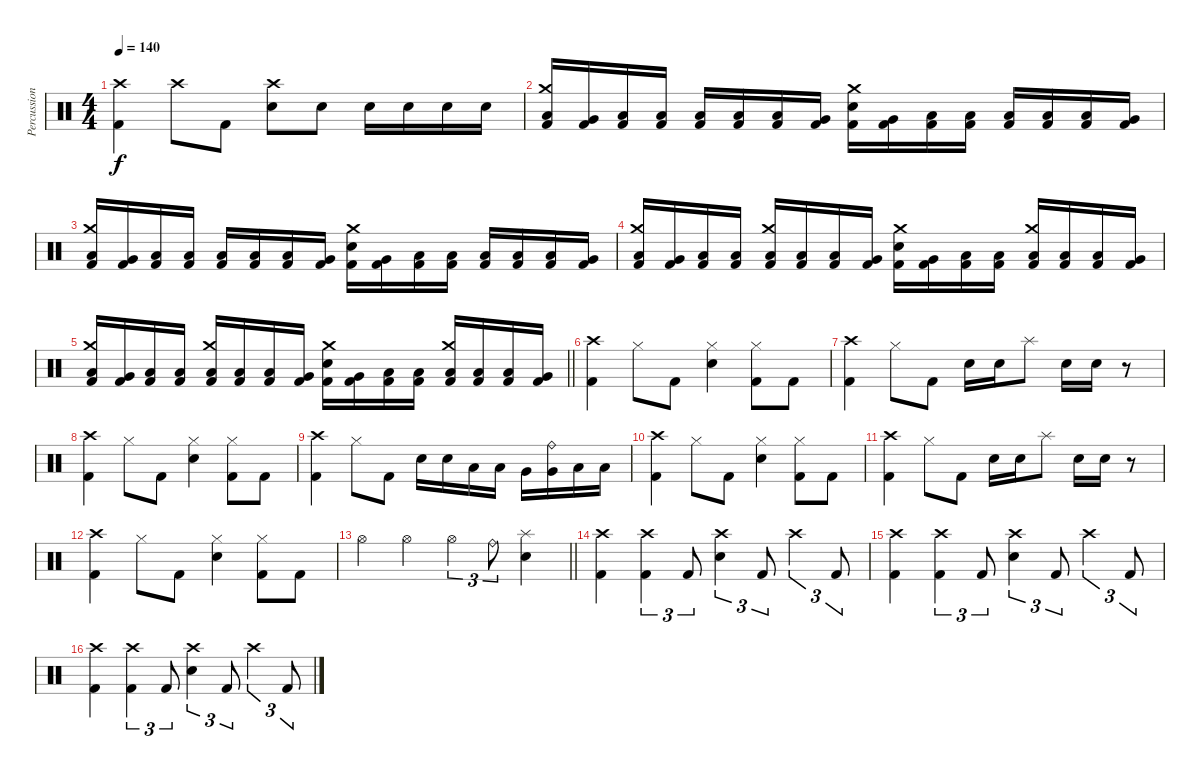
\track ("Percussion" "Percussion") {instrument percussion}
\staff {score}
\articulation defaults
\ts (4 4)
\tempo 140
\clef neutral
\ks c
("Crash high (hit)" "Kick (hit) 2").4{dy f} "Crash high (hit)".8 "Kick (hit) 2".8 ("Crash high (hit)" "Electric Snare (hit)").8 "Electric Snare (hit)".8 "Electric Snare (hit)".16 "Electric Snare (hit)".16 "Electric Snare (hit)".16 "Electric Snare (hit)".16 |
("Crash medium (hit)" "Low Tom (hit)" "Kick (hit) 2").16 ("Very Low Tom (hit)" "Kick (hit) 2").16 ("Low Floor Tom (hit)" "Kick (hit) 2").16 ("Low Floor Tom (hit)" "Kick (hit) 2").16 ("Low Floor Tom (hit)" "Kick (hit) 2").16 ("Low Floor Tom (hit)" "Kick (hit) 2").16 ("Low Tom (hit)" "Kick (hit) 2").16 ("Very Low Tom (hit)" "Kick (hit) 2").16 ("Crash medium (hit)" "Electric Snare (hit)" "Kick (hit) 2").16 ("Very Low Tom (hit)" "Kick (hit) 2").16 ("Low Floor Tom (hit)" "Kick (hit) 2").16 ("Low Floor Tom (hit)" "Kick (hit) 2").16 ("Low Floor Tom (hit)" "Kick (hit) 2").16 ("Low Floor Tom (hit)" "Kick (hit) 2").16 ("Low Tom (hit)" "Kick (hit) 2").16 ("Very Low Tom (hit)" "Kick (hit) 2").16 |
("Crash medium (hit)" "Low Tom (hit)" "Kick (hit) 2").16 ("Very Low Tom (hit)" "Kick (hit) 2").16 ("Low Floor Tom (hit)" "Kick (hit) 2").16 ("Low Floor Tom (hit)" "Kick (hit) 2").16 ("Low Floor Tom (hit)" "Kick (hit) 2").16 ("Low Floor Tom (hit)" "Kick (hit) 2").16 ("Low Tom (hit)" "Kick (hit) 2").16 ("Very Low Tom (hit)" "Kick (hit) 2").16 ("Crash medium (hit)" "Electric Snare (hit)" "Kick (hit) 2").16 ("Very Low Tom (hit)" "Kick (hit) 2").16 ("Low Floor Tom (hit)" "Kick (hit) 2").16 ("Low Floor Tom (hit)" "Kick (hit) 2").16 ("Low Floor Tom (hit)" "Kick (hit) 2").16 ("Low Floor Tom (hit)" "Kick (hit) 2").16 ("Low Tom (hit)" "Kick (hit) 2").16 ("Very Low Tom (hit)" "Kick (hit) 2").16 |
("Crash medium (hit)" "Low Tom (hit)" "Kick (hit) 2").16 ("Very Low Tom (hit)" "Kick (hit) 2").16 ("Low Floor Tom (hit)" "Kick (hit) 2").16 ("Low Floor Tom (hit)" "Kick (hit) 2").16 ("Crash medium (hit)" "Low Floor Tom (hit)" "Kick (hit) 2").16 ("Low Floor Tom (hit)" "Kick (hit) 2").16 ("Low Tom (hit)" "Kick (hit) 2").16 ("Very Low Tom (hit)" "Kick (hit) 2").16 ("Crash medium (hit)" "Electric Snare (hit)" "Kick (hit) 2").16 ("Very Low Tom (hit)" "Kick (hit) 2").16 ("Low Floor Tom (hit)" "Kick (hit) 2").16 ("Low Floor Tom (hit)" "Kick (hit) 2").16 ("Crash medium (hit)" "Low Floor Tom (hit)" "Kick (hit) 2").16 ("Low Floor Tom (hit)" "Kick (hit) 2").16 ("Low Tom (hit)" "Kick (hit) 2").16 ("Very Low Tom (hit)" "Kick (hit) 2").16 |
\barLineRight lightlight
("Crash medium (hit)" "Low Tom (hit)" "Kick (hit) 2").16 ("Very Low Tom (hit)" "Kick (hit) 2").16 ("Low Floor Tom (hit)" "Kick (hit) 2").16 ("Low Floor Tom (hit)" "Kick (hit) 2").16 ("Crash medium (hit)" "Low Floor Tom (hit)" "Kick (hit) 2").16 ("Low Floor Tom (hit)" "Kick (hit) 2").16 ("Low Tom (hit)" "Kick (hit) 2").16 ("Very Low Tom (hit)" "Kick (hit) 2").16 ("Crash medium (hit)" "Electric Snare (hit)" "Kick (hit) 2").16 ("Very Low Tom (hit)" "Kick (hit) 2").16 ("Low Floor Tom (hit)" "Kick (hit) 2").16 ("Low Floor Tom (hit)" "Kick (hit) 2").16 ("Crash medium (hit)" "Low Floor Tom (hit)" "Kick (hit) 2").16 ("Low Floor Tom (hit)" "Kick (hit) 2").16 ("Low Tom (hit)" "Kick (hit) 2").16 ("Very Low Tom (hit)" "Kick (hit) 2").16 |
\section ("" "")
("Crash high (hit)" "Kick (hit) 2").4 "Hi-Hat (closed)".8 "Kick (hit) 2".8 ("Hi-Hat (closed)" "Electric Snare (hit)").4 ("Hi-Hat (closed)" "Kick (hit) 2").8 "Kick (hit) 2".8 |
("Crash high (hit)" "Kick (hit) 2").4 "Hi-Hat (closed)".8 "Kick (hit) 2".8 "Electric Snare (hit)".16 "Electric Snare (hit)".16 "Splash (hit)".8 "Electric Snare (hit)".16 "Electric Snare (hit)".16 r.8 |
("Crash high (hit)" "Kick (hit) 2").4 "Hi-Hat (closed)".8 "Kick (hit) 2".8 ("Hi-Hat (closed)" "Electric Snare (hit)").4 ("Hi-Hat (closed)" "Kick (hit) 2").8 "Kick (hit) 2".8 |
("Crash high (hit)" "Kick (hit) 2").4 "Hi-Hat (closed)".8 "Kick (hit) 2".8 "Electric Snare (hit)".16 "Electric Snare (hit)".16 "Low Tom (hit)".16 "Low Tom (hit)".16 "Very Low Tom (hit)".16 ("Ride (bell)" "Very Low Tom (hit)").16 "Low Floor Tom (hit)".16 "Low Floor Tom (hit)".16 |
("Crash high (hit)" "Kick (hit) 2").4 "Hi-Hat (closed)".8 "Kick (hit) 2".8 ("Hi-Hat (closed)" "Electric Snare (hit)").4 ("Hi-Hat (closed)" "Kick (hit) 2").8 "Kick (hit) 2".8 |
("Crash high (hit)" "Kick (hit) 2").4 "Hi-Hat (closed)".8 "Kick (hit) 2".8 "Electric Snare (hit)".16 "Electric Snare (hit)".16 "Splash (hit)".8 "Electric Snare (hit)".16 "Electric Snare (hit)".16 r.8 |
("Crash high (hit)" "Kick (hit) 2").4 "Hi-Hat (closed)".8 "Kick (hit) 2".8 ("Hi-Hat (closed)" "Electric Snare (hit)").4 ("Hi-Hat (closed)" "Kick (hit) 2").8 "Kick (hit) 2".8 |
\barLineRight lightlight "Hi-Hat (open)".4 "Hi-Hat (open)".4 "Hi-Hat (open)".4{tu (3 2)} "Ride (bell)".8{tu (3 2)}
("Splash (hit)" "Electric Snare (hit)").4 |
\section ("" "")
("Crash high (hit)" "Kick (hit) 2").4 ("Crash high (hit)" "Kick (hit) 2").4{tu (3 2)} "Kick (hit) 2".8{tu (3 2)} ("Crash high (hit)" "Electric Snare (hit)").4{tu (3 2)} "Kick (hit) 2".8{tu (3 2)} "Crash high (hit)".4{tu (3 2)} "Kick (hit) 2".8{tu (3 2)} |
("Crash high (hit)" "Kick (hit) 2").4 ("Crash high (hit)" "Kick (hit) 2").4{tu (3 2)} "Kick (hit) 2".8{tu (3 2)} ("Crash high (hit)" "Electric Snare (hit)").4{tu (3 2)} "Kick (hit) 2".8{tu (3 2)} "Crash high (hit)".4{tu (3 2)} "Kick (hit) 2".8{tu (3 2)} |
("Crash high (hit)" "Kick (hit) 2").4 ("Crash high (hit)" "Kick (hit) 2").4{tu (3 2)} "Kick (hit) 2".8{tu (3 2)} ("Crash high (hit)" "Electric Snare (hit)").4{tu (3 2)} "Kick (hit) 2".8{tu (3 2)} "Crash high (hit)".4{tu (3 2)} "Kick (hit) 2".8{tu (3 2)}
